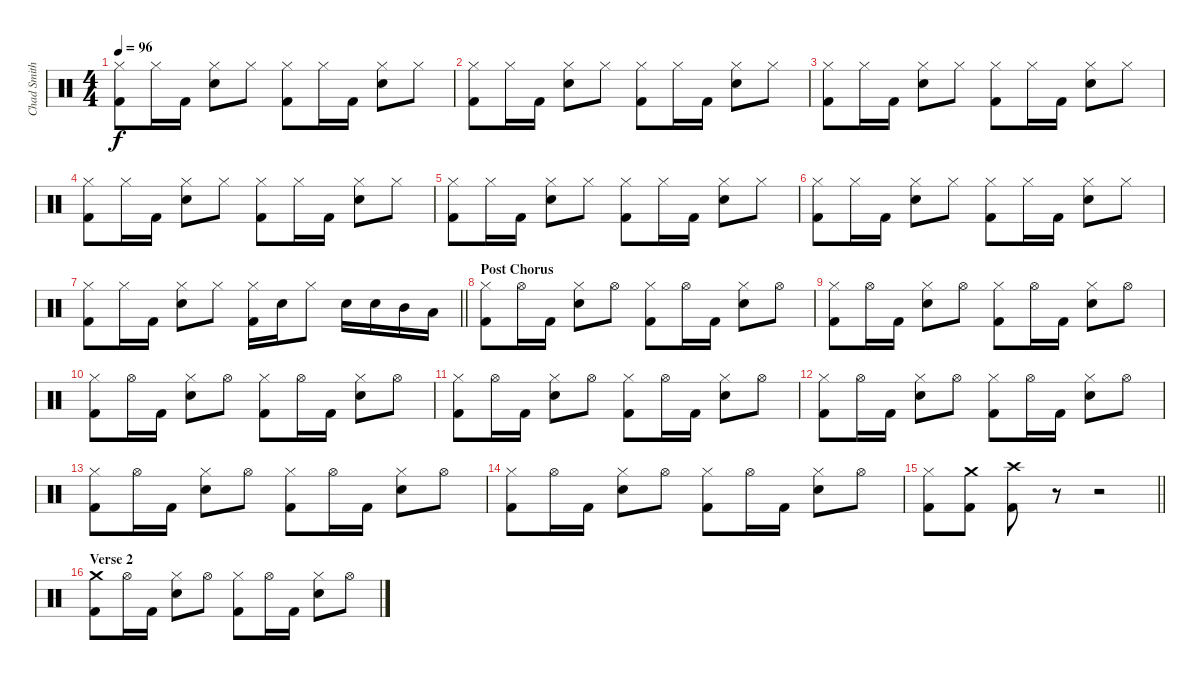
\track ("Chad Smith (Drums)" "Chad Smith") {instrument percussion}
\staff {score}
\articulation defaults
\ts (4 4)
\tempo 96
\clef neutral
\ks c
("Hi-Hat (closed)" "Kick (hit) 2").8{dy f} "Hi-Hat (closed)".16 "Kick (hit) 2".16 ("Hi-Hat (closed)" "Electric Snare (hit)").8 "Hi-Hat (closed)".8 ("Hi-Hat (closed)" "Kick (hit) 2").8 "Hi-Hat (closed)".16 "Kick (hit) 2".16 ("Hi-Hat (closed)" "Electric Snare (hit)").8 "Hi-Hat (closed)".8 |
("Hi-Hat (closed)" "Kick (hit) 2").8 "Hi-Hat (closed)".16 "Kick (hit) 2".16 ("Hi-Hat (closed)" "Electric Snare (hit)").8 "Hi-Hat (closed)".8 ("Hi-Hat (closed)" "Kick (hit) 2").8 "Hi-Hat (closed)".16 "Kick (hit) 2".16 ("Hi-Hat (closed)" "Electric Snare (hit)").8 "Hi-Hat (closed)".8 |
("Hi-Hat (closed)" "Kick (hit) 2").8 "Hi-Hat (closed)".16 "Kick (hit) 2".16 ("Hi-Hat (closed)" "Electric Snare (hit)").8 "Hi-Hat (closed)".8 ("Hi-Hat (closed)" "Kick (hit) 2").8 "Hi-Hat (closed)".16 "Kick (hit) 2".16 ("Hi-Hat (closed)" "Electric Snare (hit)").8 "Hi-Hat (closed)".8 |
("Hi-Hat (closed)" "Kick (hit) 2").8 "Hi-Hat (closed)".16 "Kick (hit) 2".16 ("Hi-Hat (closed)" "Electric Snare (hit)").8 "Hi-Hat (closed)".8 ("Hi-Hat (closed)" "Kick (hit) 2").8 "Hi-Hat (closed)".16 "Kick (hit) 2".16 ("Hi-Hat (closed)" "Electric Snare (hit)").8 "Hi-Hat (closed)".8 |
("Hi-Hat (closed)" "Kick (hit) 2").8 "Hi-Hat (closed)".16 "Kick (hit) 2".16 ("Hi-Hat (closed)" "Electric Snare (hit)").8 "Hi-Hat (closed)".8 ("Hi-Hat (closed)" "Kick (hit) 2").8 "Hi-Hat (closed)".16 "Kick (hit) 2".16 ("Hi-Hat (closed)" "Electric Snare (hit)").8 "Hi-Hat (closed)".8 |
("Hi-Hat (closed)" "Kick (hit) 2").8 "Hi-Hat (closed)".16 "Kick (hit) 2".16 ("Hi-Hat (closed)" "Electric Snare (hit)").8 "Hi-Hat (closed)".8 ("Hi-Hat (closed)" "Kick (hit) 2").8 "Hi-Hat (closed)".16 "Kick (hit) 2".16 ("Hi-Hat (closed)" "Electric Snare (hit)").8 "Hi-Hat (closed)".8 |
\barLineRight lightlight
("Hi-Hat (closed)" "Kick (hit) 2").8 "Hi-Hat (closed)".16 "Kick (hit) 2".16 ("Hi-Hat (closed)" "Electric Snare (hit)").8 "Hi-Hat (closed)".8 ("Hi-Hat (closed)" "Kick (hit) 2").16 "Electric Snare (hit)".16 "Hi-Hat (closed)".8 "Electric Snare (hit)".16 "Electric Snare (hit)".16 "Mid Tom (hit)".16 "Low Tom (hit)".16 |
\section ("" "Post Chorus")
("Hi-Hat (closed)" "Kick (hit) 2").8 "Hi-Hat (open)".16 "Kick (hit) 2".16 ("Hi-Hat (closed)" "Electric Snare (hit)").8 "Hi-Hat (open)".8 ("Hi-Hat (closed)" "Kick (hit) 2").8 "Hi-Hat (open)".16 "Kick (hit) 2".16 ("Hi-Hat (closed)" "Electric Snare (hit)").8 "Hi-Hat (open)".8 |
("Hi-Hat (closed)" "Kick (hit) 2").8 "Hi-Hat (open)".16 "Kick (hit) 2".16 ("Hi-Hat (closed)" "Electric Snare (hit)").8 "Hi-Hat (open)".8 ("Hi-Hat (closed)" "Kick (hit) 2").8 "Hi-Hat (open)".16 "Kick (hit) 2".16 ("Hi-Hat (closed)" "Electric Snare (hit)").8 "Hi-Hat (open)".8 |
("Hi-Hat (closed)" "Kick (hit) 2").8 "Hi-Hat (open)".16 "Kick (hit) 2".16 ("Hi-Hat (closed)" "Electric Snare (hit)").8 "Hi-Hat (open)".8 ("Hi-Hat (closed)" "Kick (hit) 2").8 "Hi-Hat (open)".16 "Kick (hit) 2".16 ("Hi-Hat (closed)" "Electric Snare (hit)").8 "Hi-Hat (open)".8 |
("Hi-Hat (closed)" "Kick (hit) 2").8 "Hi-Hat (open)".16 "Kick (hit) 2".16 ("Hi-Hat (closed)" "Electric Snare (hit)").8 "Hi-Hat (open)".8 ("Hi-Hat (closed)" "Kick (hit) 2").8 "Hi-Hat (open)".16 "Kick (hit) 2".16 ("Hi-Hat (closed)" "Electric Snare (hit)").8 "Hi-Hat (open)".8 |
("Hi-Hat (closed)" "Kick (hit) 2").8 "Hi-Hat (open)".16 "Kick (hit) 2".16 ("Hi-Hat (closed)" "Electric Snare (hit)").8 "Hi-Hat (open)".8 ("Hi-Hat (closed)" "Kick (hit) 2").8 "Hi-Hat (open)".16 "Kick (hit) 2".16 ("Hi-Hat (closed)" "Electric Snare (hit)").8 "Hi-Hat (open)".8 |
("Hi-Hat (closed)" "Kick (hit) 2").8 "Hi-Hat (open)".16 "Kick (hit) 2".16 ("Hi-Hat (closed)" "Electric Snare (hit)").8 "Hi-Hat (open)".8 ("Hi-Hat (closed)" "Kick (hit) 2").8 "Hi-Hat (open)".16 "Kick (hit) 2".16 ("Hi-Hat (closed)" "Electric Snare (hit)").8 "Hi-Hat (open)".8 |
("Hi-Hat (closed)" "Kick (hit) 2").8 "Hi-Hat (open)".16 "Kick (hit) 2".16 ("Hi-Hat (closed)" "Electric Snare (hit)").8 "Hi-Hat (open)".8 ("Hi-Hat (closed)" "Kick (hit) 2").8 "Hi-Hat (open)".16 "Kick (hit) 2".16 ("Hi-Hat (closed)" "Electric Snare (hit)").8 "Hi-Hat (open)".8 |
\barLineRight lightlight
("Hi-Hat (closed)" "Kick (hit) 2").8 ("Crash medium (hit)" "Kick (hit) 2").8 ("Crash high (hit)" "Kick (hit) 2").8 r.8 r.2 |
\section ("" "Verse 2")
("Crash medium (hit)" "Kick (hit) 2").8 "Hi-Hat (open)".16 "Kick (hit) 2".16 ("Hi-Hat (closed)" "Electric Snare (hit)").8 "Hi-Hat (open)".8 ("Hi-Hat (closed)" "Kick (hit) 2").8 "Hi-Hat (open)".16 "Kick (hit) 2".16 ("Hi-Hat (closed)" "Electric Snare (hit)").8 "Hi-Hat (open)".8
